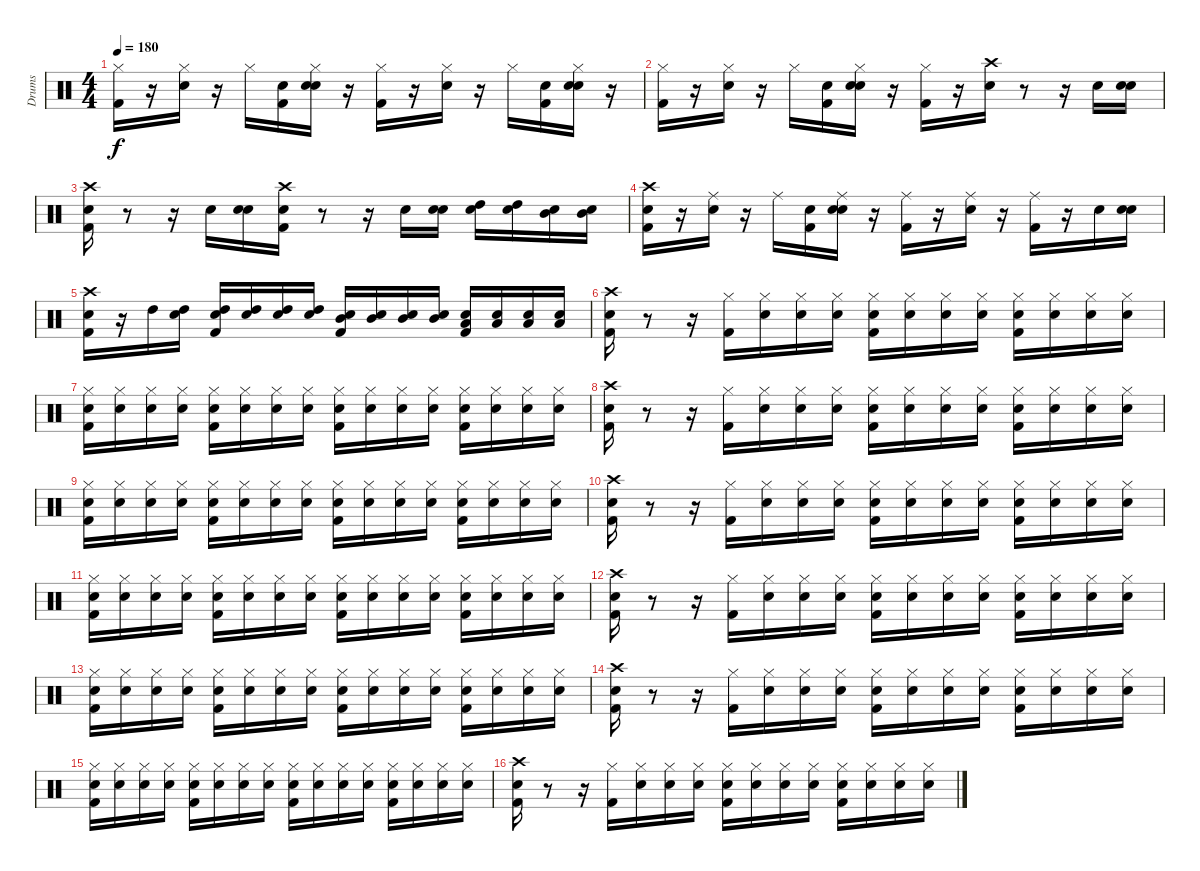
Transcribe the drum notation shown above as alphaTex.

\track ("Drums" "Drums") {instrument percussion}
\staff {score}
\articulation defaults
\ts (4 4)
\tempo 180
\clef neutral
\ks c
("Kick (hit) 2" "Hi-Hat (closed)").16{dy f} r.16 ("Snare (hit) 2" "Hi-Hat (closed)").16 r.16 "Hi-Hat (closed)".16 ("Snare (hit)" "Kick (hit) 2").16 ("Snare (hit)" "Snare (hit) 2" "Hi-Hat (closed)").16 r.16 ("Kick (hit) 2" "Hi-Hat (closed)").16 r.16 ("Snare (hit) 2" "Hi-Hat (closed)").16 r.16 "Hi-Hat (closed)".16 ("Snare (hit)" "Kick (hit) 2").16 ("Snare (hit)" "Snare (hit) 2" "Hi-Hat (closed)").16 r.16 |
("Kick (hit) 2" "Hi-Hat (closed)").16 r.16 ("Snare (hit) 2" "Hi-Hat (closed)").16 r.16 "Hi-Hat (closed)".16 ("Snare (hit)" "Kick (hit) 2").16 ("Snare (hit)" "Snare (hit) 2" "Hi-Hat (closed)").16 r.16 ("Kick (hit) 2" "Hi-Hat (closed)").16 r.16 ("Snare (hit) 2" "Crash high (hit)").16 r.8 r.16 "Snare (hit) 2".16 ("Snare (hit)" "Snare (hit) 2").16 |
("Snare (hit)" "Crash high (hit)" "Kick (hit) 2").16 r.8 r.16 "Snare (hit) 2".16 ("Snare (hit)" "Snare (hit) 2").16 ("Snare (hit)" "Kick (hit) 2" "Crash high (hit)").16 r.8 r.16 "Snare (hit) 2".16 ("Snare (hit)" "Snare (hit) 2").16 ("Snare (hit)" "High Tom (hit)").16 ("Snare (hit)" "High Tom (hit)").16 ("Snare (hit)" "Mid Tom (hit)").16 ("Snare (hit)" "Mid Tom (hit)").16 |
("Snare (hit)" "Crash high (hit)" "Kick (hit) 2").16 r.16 ("Snare (hit) 2" "Ride (middle)").16 r.16 "Ride (middle)".16 ("Snare (hit)" "Kick (hit) 2").16 ("Snare (hit)" "Snare (hit) 2" "Ride (middle)").16 r.16 ("Kick (hit) 2" "Ride (middle)").16 r.16 ("Ride (middle)" "Snare (hit) 2").16 r.16 ("Kick (hit) 2" "Ride (middle)").16 r.16 "Snare (hit) 2".16 ("Snare (hit)" "Snare (hit) 2").16 |
("Snare (hit)" "Crash high (hit)" "Kick (hit) 2").16 r.16 "High Tom (hit)".16 ("Snare (hit)" "High Tom (hit)").16 ("Snare (hit)" "High Tom (hit)" "Kick (hit) 2").16 ("Snare (hit)" "High Tom (hit)").16 ("Snare (hit)" "High Tom (hit)").16 ("Snare (hit)" "High Tom (hit)").16 ("Snare (hit)" "Mid Tom (hit)" "Kick (hit) 2").16 ("Snare (hit)" "Mid Tom (hit)").16 ("Snare (hit)" "Mid Tom (hit)").16 ("Snare (hit)" "Mid Tom (hit)").16 ("Snare (hit)" "Low Tom (hit)" "Kick (hit) 2").16 ("Snare (hit)" "Low Tom (hit)").16 ("Snare (hit)" "Low Tom (hit)").16 ("Snare (hit)" "Low Tom (hit)").16 |
("Snare (hit)" "Crash high (hit)" "Kick (hit) 2").16 r.8 r.16 ("Hi-Hat (closed)" "Kick (hit) 2").16 ("Snare (hit)" "Hi-Hat (closed)").16 ("Snare (hit)" "Hi-Hat (closed)").16 ("Snare (hit)" "Hi-Hat (closed)").16 ("Snare (hit)" "Hi-Hat (closed)" "Kick (hit) 2").16 ("Snare (hit)" "Hi-Hat (closed)").16 ("Snare (hit)" "Hi-Hat (closed)").16 ("Snare (hit)" "Hi-Hat (closed)").16 ("Snare (hit)" "Hi-Hat (closed)" "Kick (hit) 2").16 ("Snare (hit)" "Hi-Hat (closed)").16 ("Snare (hit)" "Hi-Hat (closed)").16 ("Snare (hit)" "Hi-Hat (closed)").16 |
("Snare (hit)" "Kick (hit) 2" "Hi-Hat (closed)").16 ("Snare (hit)" "Hi-Hat (closed)").16 ("Snare (hit)" "Hi-Hat (closed)").16 ("Snare (hit)" "Hi-Hat (closed)").16 ("Snare (hit)" "Kick (hit) 2" "Hi-Hat (closed)").16 ("Snare (hit)" "Hi-Hat (closed)").16 ("Snare (hit)" "Hi-Hat (closed)").16 ("Snare (hit)" "Hi-Hat (closed)").16 ("Snare (hit)" "Kick (hit) 2" "Hi-Hat (closed)").16 ("Snare (hit)" "Hi-Hat (closed)").16 ("Snare (hit)" "Hi-Hat (closed)").16 ("Snare (hit)" "Hi-Hat (closed)").16 ("Snare (hit)" "Kick (hit) 2" "Hi-Hat (closed)").16 ("Snare (hit)" "Hi-Hat (closed)").16 ("Snare (hit)" "Hi-Hat (closed)").16 ("Snare (hit)" "Hi-Hat (closed)").16 |
("Snare (hit)" "Crash high (hit)" "Kick (hit) 2").16 r.8 r.16 ("Hi-Hat (closed)" "Kick (hit) 2").16 ("Snare (hit)" "Hi-Hat (closed)").16 ("Snare (hit)" "Hi-Hat (closed)").16 ("Snare (hit)" "Hi-Hat (closed)").16 ("Snare (hit)" "Hi-Hat (closed)" "Kick (hit) 2").16 ("Snare (hit)" "Hi-Hat (closed)").16 ("Snare (hit)" "Hi-Hat (closed)").16 ("Snare (hit)" "Hi-Hat (closed)").16 ("Snare (hit)" "Hi-Hat (closed)" "Kick (hit) 2").16 ("Snare (hit)" "Hi-Hat (closed)").16 ("Snare (hit)" "Hi-Hat (closed)").16 ("Snare (hit)" "Hi-Hat (closed)").16 |
("Snare (hit)" "Kick (hit) 2" "Hi-Hat (closed)").16 ("Snare (hit)" "Hi-Hat (closed)").16 ("Snare (hit)" "Hi-Hat (closed)").16 ("Snare (hit)" "Hi-Hat (closed)").16 ("Snare (hit)" "Kick (hit) 2" "Hi-Hat (closed)").16 ("Snare (hit)" "Hi-Hat (closed)").16 ("Snare (hit)" "Hi-Hat (closed)").16 ("Snare (hit)" "Hi-Hat (closed)").16 ("Snare (hit)" "Kick (hit) 2" "Hi-Hat (closed)").16 ("Snare (hit)" "Hi-Hat (closed)").16 ("Snare (hit)" "Hi-Hat (closed)").16 ("Snare (hit)" "Hi-Hat (closed)").16 ("Snare (hit)" "Kick (hit) 2" "Hi-Hat (closed)").16 ("Snare (hit)" "Hi-Hat (closed)").16 ("Snare (hit)" "Hi-Hat (closed)").16 ("Snare (hit)" "Hi-Hat (closed)").16 |
("Snare (hit)" "Crash high (hit)" "Kick (hit) 2").16 r.8 r.16 ("Hi-Hat (closed)" "Kick (hit) 2").16 ("Snare (hit)" "Hi-Hat (closed)").16 ("Snare (hit)" "Hi-Hat (closed)").16 ("Snare (hit)" "Hi-Hat (closed)").16 ("Snare (hit)" "Hi-Hat (closed)" "Kick (hit) 2").16 ("Snare (hit)" "Hi-Hat (closed)").16 ("Snare (hit)" "Hi-Hat (closed)").16 ("Snare (hit)" "Hi-Hat (closed)").16 ("Snare (hit)" "Hi-Hat (closed)" "Kick (hit) 2").16 ("Snare (hit)" "Hi-Hat (closed)").16 ("Snare (hit)" "Hi-Hat (closed)").16 ("Snare (hit)" "Hi-Hat (closed)").16 |
("Snare (hit)" "Kick (hit) 2" "Hi-Hat (closed)").16 ("Snare (hit)" "Hi-Hat (closed)").16 ("Snare (hit)" "Hi-Hat (closed)").16 ("Snare (hit)" "Hi-Hat (closed)").16 ("Snare (hit)" "Kick (hit) 2" "Hi-Hat (closed)").16 ("Snare (hit)" "Hi-Hat (closed)").16 ("Snare (hit)" "Hi-Hat (closed)").16 ("Snare (hit)" "Hi-Hat (closed)").16 ("Snare (hit)" "Kick (hit) 2" "Hi-Hat (closed)").16 ("Snare (hit)" "Hi-Hat (closed)").16 ("Snare (hit)" "Hi-Hat (closed)").16 ("Snare (hit)" "Hi-Hat (closed)").16 ("Snare (hit)" "Kick (hit) 2" "Hi-Hat (closed)").16 ("Snare (hit)" "Hi-Hat (closed)").16 ("Snare (hit)" "Hi-Hat (closed)").16 ("Snare (hit)" "Hi-Hat (closed)").16 |
("Snare (hit)" "Crash high (hit)" "Kick (hit) 2").16 r.8 r.16 ("Hi-Hat (closed)" "Kick (hit) 2").16 ("Snare (hit)" "Hi-Hat (closed)").16 ("Snare (hit)" "Hi-Hat (closed)").16 ("Snare (hit)" "Hi-Hat (closed)").16 ("Snare (hit)" "Hi-Hat (closed)" "Kick (hit) 2").16 ("Snare (hit)" "Hi-Hat (closed)").16 ("Snare (hit)" "Hi-Hat (closed)").16 ("Snare (hit)" "Hi-Hat (closed)").16 ("Snare (hit)" "Hi-Hat (closed)" "Kick (hit) 2").16 ("Snare (hit)" "Hi-Hat (closed)").16 ("Snare (hit)" "Hi-Hat (closed)").16 ("Snare (hit)" "Hi-Hat (closed)").16 |
("Snare (hit)" "Kick (hit) 2" "Hi-Hat (closed)").16 ("Snare (hit)" "Hi-Hat (closed)").16 ("Snare (hit)" "Hi-Hat (closed)").16 ("Snare (hit)" "Hi-Hat (closed)").16 ("Snare (hit)" "Kick (hit) 2" "Hi-Hat (closed)").16 ("Snare (hit)" "Hi-Hat (closed)").16 ("Snare (hit)" "Hi-Hat (closed)").16 ("Snare (hit)" "Hi-Hat (closed)").16 ("Snare (hit)" "Kick (hit) 2" "Hi-Hat (closed)").16 ("Snare (hit)" "Hi-Hat (closed)").16 ("Snare (hit)" "Hi-Hat (closed)").16 ("Snare (hit)" "Hi-Hat (closed)").16 ("Snare (hit)" "Kick (hit) 2" "Hi-Hat (closed)").16 ("Snare (hit)" "Hi-Hat (closed)").16 ("Snare (hit)" "Hi-Hat (closed)").16 ("Snare (hit)" "Hi-Hat (closed)").16 |
("Snare (hit)" "Crash high (hit)" "Kick (hit) 2").16 r.8 r.16 ("Hi-Hat (closed)" "Kick (hit) 2").16 ("Snare (hit)" "Hi-Hat (closed)").16 ("Snare (hit)" "Hi-Hat (closed)").16 ("Snare (hit)" "Hi-Hat (closed)").16 ("Snare (hit)" "Hi-Hat (closed)" "Kick (hit) 2").16 ("Snare (hit)" "Hi-Hat (closed)").16 ("Snare (hit)" "Hi-Hat (closed)").16 ("Snare (hit)" "Hi-Hat (closed)").16 ("Snare (hit)" "Hi-Hat (closed)" "Kick (hit) 2").16 ("Snare (hit)" "Hi-Hat (closed)").16 ("Snare (hit)" "Hi-Hat (closed)").16 ("Snare (hit)" "Hi-Hat (closed)").16 |
("Snare (hit)" "Kick (hit) 2" "Hi-Hat (closed)").16 ("Snare (hit)" "Hi-Hat (closed)").16 ("Snare (hit)" "Hi-Hat (closed)").16 ("Snare (hit)" "Hi-Hat (closed)").16 ("Snare (hit)" "Kick (hit) 2" "Hi-Hat (closed)").16 ("Snare (hit)" "Hi-Hat (closed)").16 ("Snare (hit)" "Hi-Hat (closed)").16 ("Snare (hit)" "Hi-Hat (closed)").16 ("Snare (hit)" "Kick (hit) 2" "Hi-Hat (closed)").16 ("Snare (hit)" "Hi-Hat (closed)").16 ("Snare (hit)" "Hi-Hat (closed)").16 ("Snare (hit)" "Hi-Hat (closed)").16 ("Snare (hit)" "Kick (hit) 2" "Hi-Hat (closed)").16 ("Snare (hit)" "Hi-Hat (closed)").16 ("Snare (hit)" "Hi-Hat (closed)").16 ("Snare (hit)" "Hi-Hat (closed)").16 |
("Snare (hit)" "Crash high (hit)" "Kick (hit) 2").16 r.8 r.16 ("Hi-Hat (closed)" "Kick (hit) 2").16 ("Snare (hit)" "Hi-Hat (closed)").16 ("Snare (hit)" "Hi-Hat (closed)").16 ("Snare (hit)" "Hi-Hat (closed)").16 ("Snare (hit)" "Hi-Hat (closed)" "Kick (hit) 2").16 ("Snare (hit)" "Hi-Hat (closed)").16 ("Snare (hit)" "Hi-Hat (closed)").16 ("Snare (hit)" "Hi-Hat (closed)").16 ("Snare (hit)" "Hi-Hat (closed)" "Kick (hit) 2").16 ("Snare (hit)" "Hi-Hat (closed)").16 ("Snare (hit)" "Hi-Hat (closed)").16 ("Snare (hit)" "Hi-Hat (closed)").16
